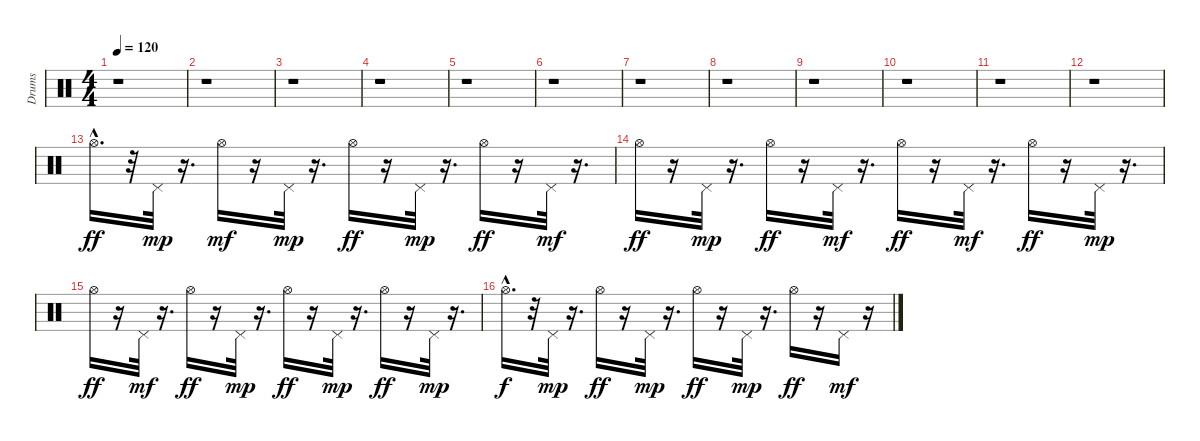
\track ("Drums" "Drums") {instrument percussion}
\staff {score}
\articulation defaults
\ts (4 4)
\tempo 120
\clef neutral
\ks c
r.1{dy fff} |
r.1 |
r.1 |
r.1 |
r.1 |
r.1 |
r.1 |
r.1 |
r.1 |
r.1 |
r.1 |
r.1 |
"Hi-Hat (open)"{hac}.16{d dy ff} r.32 "Pedal Hi-Hat (hit)".32{dy mp} r.16{d} "Hi-Hat (open)".16{dy mf} r.16 "Pedal Hi-Hat (hit)".32{dy mp} r.16{d} "Hi-Hat (open)".16{dy ff} r.16 "Pedal Hi-Hat (hit)".32{dy mp} r.16{d} "Hi-Hat (open)".16{dy ff} r.16 "Pedal Hi-Hat (hit)".32{dy mf} r.16{d} |
"Hi-Hat (open)".16{dy ff} r.16 "Pedal Hi-Hat (hit)".32{dy mp} r.16{d} "Hi-Hat (open)".16{dy ff} r.16 "Pedal Hi-Hat (hit)".32{dy mf} r.16{d} "Hi-Hat (open)".16{dy ff} r.16 "Pedal Hi-Hat (hit)".32{dy mf} r.16{d} "Hi-Hat (open)".16{dy ff} r.16 "Pedal Hi-Hat (hit)".32{dy mp} r.16{d} |
"Hi-Hat (open)".16{dy ff} r.16 "Pedal Hi-Hat (hit)".32{dy mf} r.16{d} "Hi-Hat (open)".16{dy ff} r.16 "Pedal Hi-Hat (hit)".32{dy mp} r.16{d} "Hi-Hat (open)".16{dy ff} r.16 "Pedal Hi-Hat (hit)".32{dy mp} r.16{d} "Hi-Hat (open)".16{dy ff} r.16 "Pedal Hi-Hat (hit)".32{dy mp} r.16{d} |
"Hi-Hat (open)"{hac}.16{d dy f} r.32 "Pedal Hi-Hat (hit)".32{dy mp} r.16{d} "Hi-Hat (open)".16{dy ff} r.16 "Pedal Hi-Hat (hit)".32{dy mp} r.16{d} "Hi-Hat (open)".16{dy ff} r.16 "Pedal Hi-Hat (hit)".32{dy mp} r.16{d} "Hi-Hat (open)".16{dy ff} r.16 "Pedal Hi-Hat (hit)".16{dy mf} r.16
